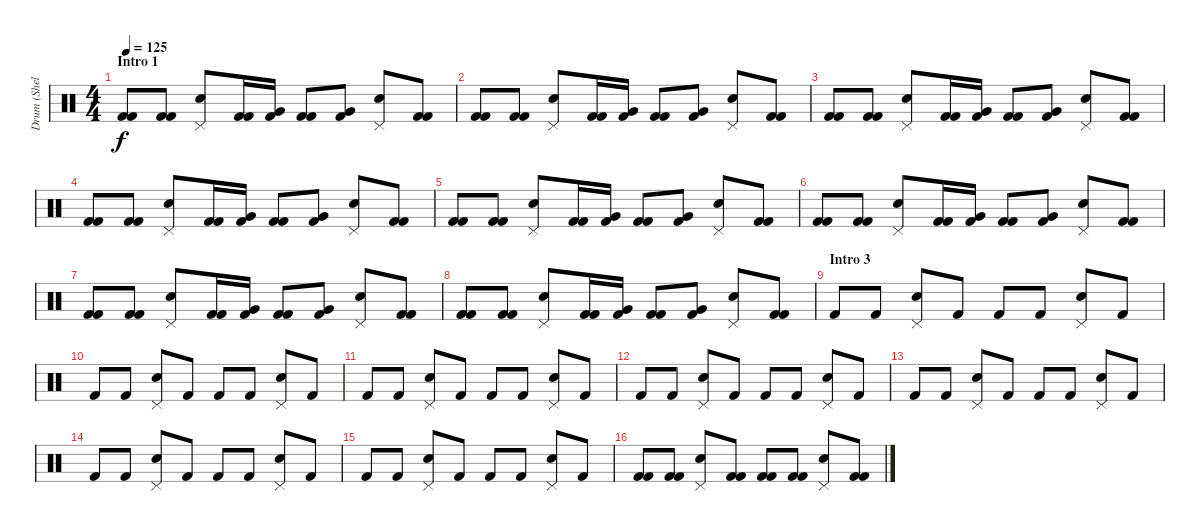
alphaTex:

\track ("Drum (Shelley)" "Drum (Shel") {instrument percussion}
\staff {score}
\articulation defaults
\ts (4 4)
\section ("" "Intro 1")
\tempo 125
\clef neutral
\ks c
("Kick (hit) 2" "Kick (hit) 2").8{dy f} ("Kick (hit) 2" "Kick (hit) 2").8 ("Pedal Hi-Hat (hit)" "Electric Snare (hit)").8 ("Kick (hit) 2" "Kick (hit) 2").16 ("Kick (hit) 2" "Very Low Tom (hit)").16 ("Kick (hit) 2" "Kick (hit) 2").8 ("Kick (hit) 2" "Very Low Tom (hit)").8 ("Pedal Hi-Hat (hit)" "Electric Snare (hit)").8 ("Kick (hit) 2" "Kick (hit) 2").8 |
("Kick (hit) 2" "Kick (hit) 2").8 ("Kick (hit) 2" "Kick (hit) 2").8 ("Pedal Hi-Hat (hit)" "Electric Snare (hit)").8 ("Kick (hit) 2" "Kick (hit) 2").16 ("Kick (hit) 2" "Very Low Tom (hit)").16 ("Kick (hit) 2" "Kick (hit) 2").8 ("Kick (hit) 2" "Very Low Tom (hit)").8 ("Pedal Hi-Hat (hit)" "Electric Snare (hit)").8 ("Kick (hit) 2" "Kick (hit) 2").8 |
("Kick (hit) 2" "Kick (hit) 2").8 ("Kick (hit) 2" "Kick (hit) 2").8 ("Pedal Hi-Hat (hit)" "Electric Snare (hit)").8 ("Kick (hit) 2" "Kick (hit) 2").16 ("Kick (hit) 2" "Very Low Tom (hit)").16 ("Kick (hit) 2" "Kick (hit) 2").8 ("Kick (hit) 2" "Very Low Tom (hit)").8 ("Pedal Hi-Hat (hit)" "Electric Snare (hit)").8 ("Kick (hit) 2" "Kick (hit) 2").8 |
("Kick (hit) 2" "Kick (hit) 2").8 ("Kick (hit) 2" "Kick (hit) 2").8 ("Pedal Hi-Hat (hit)" "Electric Snare (hit)").8 ("Kick (hit) 2" "Kick (hit) 2").16 ("Kick (hit) 2" "Very Low Tom (hit)").16 ("Kick (hit) 2" "Kick (hit) 2").8 ("Kick (hit) 2" "Very Low Tom (hit)").8 ("Pedal Hi-Hat (hit)" "Electric Snare (hit)").8 ("Kick (hit) 2" "Kick (hit) 2").8 |
("Kick (hit) 2" "Kick (hit) 2").8 ("Kick (hit) 2" "Kick (hit) 2").8 ("Pedal Hi-Hat (hit)" "Electric Snare (hit)").8 ("Kick (hit) 2" "Kick (hit) 2").16 ("Kick (hit) 2" "Very Low Tom (hit)").16 ("Kick (hit) 2" "Kick (hit) 2").8 ("Kick (hit) 2" "Very Low Tom (hit)").8 ("Pedal Hi-Hat (hit)" "Electric Snare (hit)").8 ("Kick (hit) 2" "Kick (hit) 2").8 |
("Kick (hit) 2" "Kick (hit) 2").8 ("Kick (hit) 2" "Kick (hit) 2").8 ("Pedal Hi-Hat (hit)" "Electric Snare (hit)").8 ("Kick (hit) 2" "Kick (hit) 2").16 ("Kick (hit) 2" "Very Low Tom (hit)").16 ("Kick (hit) 2" "Kick (hit) 2").8 ("Kick (hit) 2" "Very Low Tom (hit)").8 ("Pedal Hi-Hat (hit)" "Electric Snare (hit)").8 ("Kick (hit) 2" "Kick (hit) 2").8 |
("Kick (hit) 2" "Kick (hit) 2").8 ("Kick (hit) 2" "Kick (hit) 2").8 ("Pedal Hi-Hat (hit)" "Electric Snare (hit)").8 ("Kick (hit) 2" "Kick (hit) 2").16 ("Kick (hit) 2" "Very Low Tom (hit)").16 ("Kick (hit) 2" "Kick (hit) 2").8 ("Kick (hit) 2" "Very Low Tom (hit)").8 ("Pedal Hi-Hat (hit)" "Electric Snare (hit)").8 ("Kick (hit) 2" "Kick (hit) 2").8 |
("Kick (hit) 2" "Kick (hit) 2").8 ("Kick (hit) 2" "Kick (hit) 2").8 ("Pedal Hi-Hat (hit)" "Electric Snare (hit)").8 ("Kick (hit) 2" "Kick (hit) 2").16 ("Kick (hit) 2" "Very Low Tom (hit)").16 ("Kick (hit) 2" "Kick (hit) 2").8 ("Kick (hit) 2" "Very Low Tom (hit)").8 ("Pedal Hi-Hat (hit)" "Electric Snare (hit)").8 ("Kick (hit) 2" "Kick (hit) 2").8 |
\section ("" "Intro 3")
"Kick (hit) 2".8 "Kick (hit) 2".8 ("Pedal Hi-Hat (hit)" "Electric Snare (hit)").8 "Kick (hit) 2".8 "Kick (hit) 2".8 "Kick (hit) 2".8 ("Pedal Hi-Hat (hit)" "Electric Snare (hit)").8 "Kick (hit) 2".8 |
"Kick (hit) 2".8 "Kick (hit) 2".8 ("Pedal Hi-Hat (hit)" "Electric Snare (hit)").8 "Kick (hit) 2".8 "Kick (hit) 2".8 "Kick (hit) 2".8 ("Pedal Hi-Hat (hit)" "Electric Snare (hit)").8 "Kick (hit) 2".8 |
"Kick (hit) 2".8 "Kick (hit) 2".8 ("Pedal Hi-Hat (hit)" "Electric Snare (hit)").8 "Kick (hit) 2".8 "Kick (hit) 2".8 "Kick (hit) 2".8 ("Pedal Hi-Hat (hit)" "Electric Snare (hit)").8 "Kick (hit) 2".8 |
"Kick (hit) 2".8 "Kick (hit) 2".8 ("Pedal Hi-Hat (hit)" "Electric Snare (hit)").8 "Kick (hit) 2".8 "Kick (hit) 2".8 "Kick (hit) 2".8 ("Pedal Hi-Hat (hit)" "Electric Snare (hit)").8 "Kick (hit) 2".8 |
"Kick (hit) 2".8 "Kick (hit) 2".8 ("Pedal Hi-Hat (hit)" "Electric Snare (hit)").8 "Kick (hit) 2".8 "Kick (hit) 2".8 "Kick (hit) 2".8 ("Pedal Hi-Hat (hit)" "Electric Snare (hit)").8 "Kick (hit) 2".8 |
"Kick (hit) 2".8 "Kick (hit) 2".8 ("Pedal Hi-Hat (hit)" "Electric Snare (hit)").8 "Kick (hit) 2".8 "Kick (hit) 2".8 "Kick (hit) 2".8 ("Pedal Hi-Hat (hit)" "Electric Snare (hit)").8 "Kick (hit) 2".8 |
"Kick (hit) 2".8 "Kick (hit) 2".8 ("Pedal Hi-Hat (hit)" "Electric Snare (hit)").8 "Kick (hit) 2".8 "Kick (hit) 2".8 "Kick (hit) 2".8 ("Pedal Hi-Hat (hit)" "Electric Snare (hit)").8 "Kick (hit) 2".8 |
("Kick (hit) 2" "Kick (hit) 2").8 ("Kick (hit) 2" "Kick (hit) 2").8 ("Pedal Hi-Hat (hit)" "Electric Snare (hit)").8 ("Kick (hit) 2" "Kick (hit) 2").8 ("Kick (hit) 2" "Kick (hit) 2").8 ("Kick (hit) 2" "Kick (hit) 2").8 ("Pedal Hi-Hat (hit)" "Electric Snare (hit)").8 ("Kick (hit) 2" "Kick (hit) 2").8
